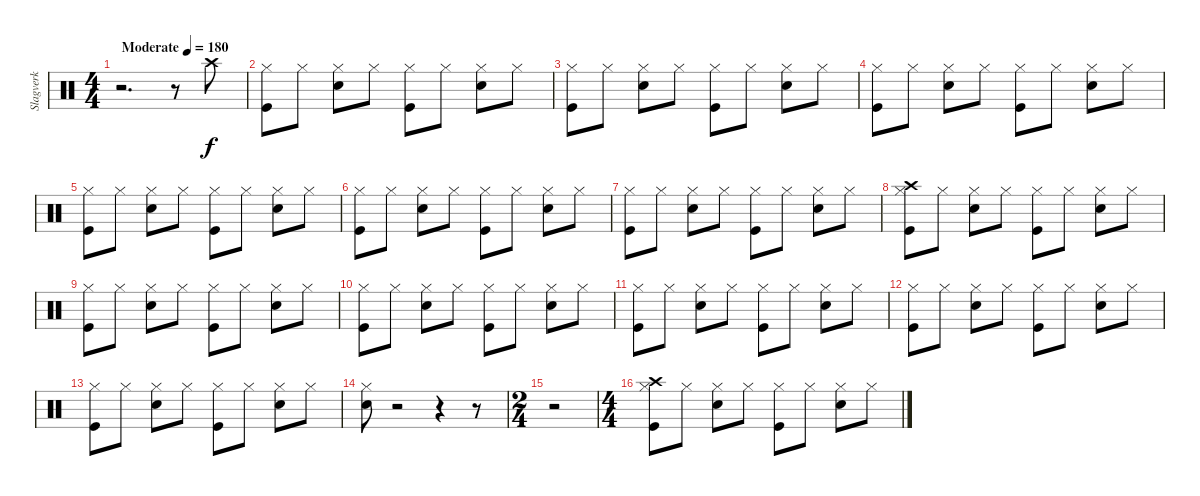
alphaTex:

\track ("Slagverk" "Slagverk") {instrument percussion}
\staff {score}
\articulation defaults
\ts (4 4)
\tempo (180 "Moderate")
\clef neutral
\ks c
r.2{d dy f} r.8 "Crash high (hit)".8 |
("Hi-Hat (closed)" "Kick (hit)").8 "Hi-Hat (closed)".8 ("Hi-Hat (closed)" "Snare (hit) 2").8 "Hi-Hat (closed)".8 ("Hi-Hat (closed)" "Kick (hit)").8 "Hi-Hat (closed)".8 ("Hi-Hat (closed)" "Snare (hit) 2").8 "Hi-Hat (closed)".8 |
("Hi-Hat (closed)" "Kick (hit)").8 "Hi-Hat (closed)".8 ("Hi-Hat (closed)" "Snare (hit) 2").8 "Hi-Hat (closed)".8 ("Hi-Hat (closed)" "Kick (hit)").8 "Hi-Hat (closed)".8 ("Hi-Hat (closed)" "Snare (hit) 2").8 "Hi-Hat (closed)".8 |
("Hi-Hat (closed)" "Kick (hit)").8 "Hi-Hat (closed)".8 ("Hi-Hat (closed)" "Snare (hit) 2").8 "Hi-Hat (closed)".8 ("Hi-Hat (closed)" "Kick (hit)").8 "Hi-Hat (closed)".8 ("Hi-Hat (closed)" "Snare (hit) 2").8 "Hi-Hat (closed)".8 |
("Hi-Hat (closed)" "Kick (hit)").8 "Hi-Hat (closed)".8 ("Hi-Hat (closed)" "Snare (hit) 2").8 "Hi-Hat (closed)".8 ("Hi-Hat (closed)" "Kick (hit)").8 "Hi-Hat (closed)".8 ("Hi-Hat (closed)" "Snare (hit) 2").8 "Hi-Hat (closed)".8 |
("Hi-Hat (closed)" "Kick (hit)").8 "Hi-Hat (closed)".8 ("Hi-Hat (closed)" "Snare (hit) 2").8 "Hi-Hat (closed)".8 ("Hi-Hat (closed)" "Kick (hit)").8 "Hi-Hat (closed)".8 ("Hi-Hat (closed)" "Snare (hit) 2").8 "Hi-Hat (closed)".8 |
("Hi-Hat (closed)" "Kick (hit)").8 "Hi-Hat (closed)".8 ("Hi-Hat (closed)" "Snare (hit) 2").8 "Hi-Hat (closed)".8 ("Hi-Hat (closed)" "Kick (hit)").8 "Hi-Hat (closed)".8 ("Hi-Hat (closed)" "Snare (hit) 2").8 "Hi-Hat (closed)".8 |
("Crash high (hit)" "Hi-Hat (closed)" "Kick (hit)").8 "Hi-Hat (closed)".8 ("Hi-Hat (closed)" "Snare (hit) 2").8 "Hi-Hat (closed)".8 ("Hi-Hat (closed)" "Kick (hit)").8 "Hi-Hat (closed)".8 ("Hi-Hat (closed)" "Snare (hit) 2").8 "Hi-Hat (closed)".8 |
("Hi-Hat (closed)" "Kick (hit)").8 "Hi-Hat (closed)".8 ("Hi-Hat (closed)" "Snare (hit) 2").8 "Hi-Hat (closed)".8 ("Hi-Hat (closed)" "Kick (hit)").8 "Hi-Hat (closed)".8 ("Hi-Hat (closed)" "Snare (hit) 2").8 "Hi-Hat (closed)".8 |
("Hi-Hat (closed)" "Kick (hit)").8 "Hi-Hat (closed)".8 ("Hi-Hat (closed)" "Snare (hit) 2").8 "Hi-Hat (closed)".8 ("Hi-Hat (closed)" "Kick (hit)").8 "Hi-Hat (closed)".8 ("Hi-Hat (closed)" "Snare (hit) 2").8 "Hi-Hat (closed)".8 |
("Hi-Hat (closed)" "Kick (hit)").8 "Hi-Hat (closed)".8 ("Hi-Hat (closed)" "Snare (hit) 2").8 "Hi-Hat (closed)".8 ("Hi-Hat (closed)" "Kick (hit)").8 "Hi-Hat (closed)".8 ("Hi-Hat (closed)" "Snare (hit) 2").8 "Hi-Hat (closed)".8 |
("Hi-Hat (closed)" "Kick (hit)").8 "Hi-Hat (closed)".8 ("Hi-Hat (closed)" "Snare (hit) 2").8 "Hi-Hat (closed)".8 ("Hi-Hat (closed)" "Kick (hit)").8 "Hi-Hat (closed)".8 ("Hi-Hat (closed)" "Snare (hit) 2").8 "Hi-Hat (closed)".8 |
("Hi-Hat (closed)" "Kick (hit)").8 "Hi-Hat (closed)".8 ("Hi-Hat (closed)" "Snare (hit) 2").8 "Hi-Hat (closed)".8 ("Hi-Hat (closed)" "Kick (hit)").8 "Hi-Hat (closed)".8 ("Hi-Hat (closed)" "Snare (hit) 2").8 "Hi-Hat (closed)".8 |
("Hi-Hat (closed)" "Snare (hit) 2").8 r.2 r.4 r.8 |
\ts (2 4)
r.2 |
\ts (4 4)
("Crash high (hit)" "Hi-Hat (closed)" "Kick (hit)").8 "Hi-Hat (closed)".8 ("Hi-Hat (closed)" "Snare (hit) 2").8 "Hi-Hat (closed)".8 ("Hi-Hat (closed)" "Kick (hit)").8 "Hi-Hat (closed)".8 ("Hi-Hat (closed)" "Snare (hit) 2").8 "Hi-Hat (closed)".8
